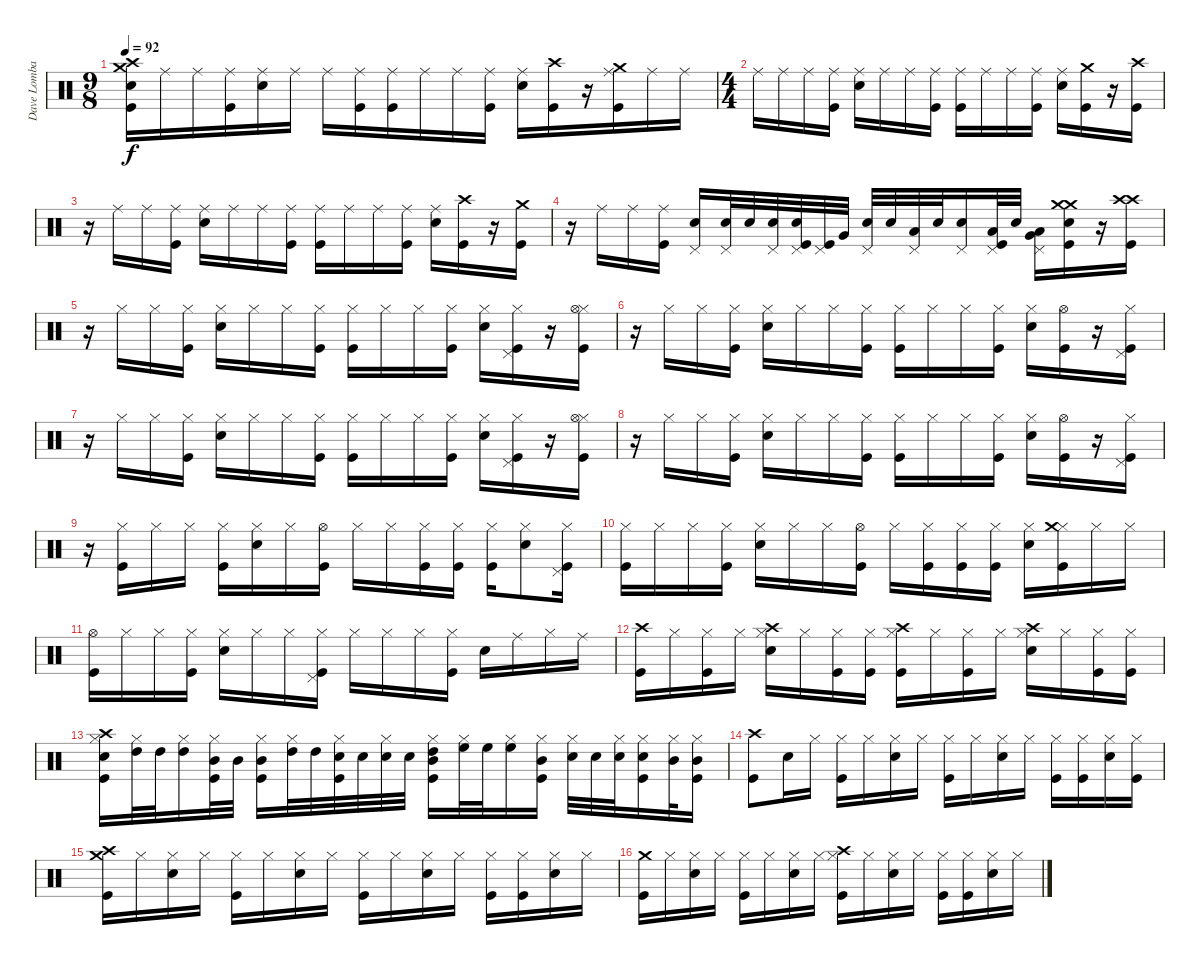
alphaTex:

\track ("Dave Lombardo" "Dave Lomba") {instrument percussion}
\staff {score}
\articulation defaults
\ts (9 8)
\tempo 92
\clef neutral
\ks c
("Crash high (hit)" "Kick (hit)" "Snare (hit) 2" "Crash medium (hit)").16{dy f} "Ride (middle)".16 "Ride (middle)".16 ("Ride (middle)" "Kick (hit)").16 ("Ride (middle)" "Snare (hit) 2").16 "Ride (middle)".16 "Ride (middle)".16 ("Ride (middle)" "Kick (hit)").16 ("Ride (middle)" "Kick (hit)").16 "Ride (middle)".16 "Ride (middle)".16 ("Ride (middle)" "Kick (hit)").16 ("Ride (middle)" "Snare (hit) 2").16 ("Crash high (hit)" "Kick (hit)").16 r.16 ("Ride (middle)" "Kick (hit)" "Crash medium (hit)").16 "Ride (middle)".16 "Ride (middle)".16 |
\ts (4 4)
"Ride (middle)".16 "Ride (middle)".16 "Ride (middle)".16 ("Ride (middle)" "Kick (hit)").16 ("Ride (middle)" "Snare (hit) 2").16 "Ride (middle)".16 "Ride (middle)".16 ("Ride (middle)" "Kick (hit)").16 ("Ride (middle)" "Kick (hit)").16 "Ride (middle)".16 "Ride (middle)".16 ("Ride (middle)" "Kick (hit)").16 ("Ride (middle)" "Snare (hit) 2").16 ("Kick (hit)" "Crash medium (hit)").16 r.16 ("Crash high (hit)" "Kick (hit)").16 |
r.16 "Ride (middle)".16 "Ride (middle)".16 ("Ride (middle)" "Kick (hit)").16 ("Ride (middle)" "Snare (hit) 2").16 "Ride (middle)".16 "Ride (middle)".16 ("Ride (middle)" "Kick (hit)").16 ("Ride (middle)" "Kick (hit)").16 "Ride (middle)".16 "Ride (middle)".16 ("Ride (middle)" "Kick (hit)").16 ("Ride (middle)" "Snare (hit) 2").16 ("Crash high (hit)" "Kick (hit)").16 r.16 ("Kick (hit)" "Crash medium (hit)").16 |
r.16 "Ride (middle)".16 "Ride (middle)".16 ("Ride (middle)" "Kick (hit)").16 ("Pedal Hi-Hat (hit)" "Snare (hit) 2").16 ("Pedal Hi-Hat (hit)" "Snare (hit) 2").32 "Snare (hit) 2".32 ("Pedal Hi-Hat (hit)" "Snare (hit) 2").32 ("Pedal Hi-Hat (hit)" "Kick (hit)" "Snare (hit) 2").32 ("Pedal Hi-Hat (hit)" "Kick (hit)").32 "Very Low Tom (hit)".32 ("Pedal Hi-Hat (hit)" "Snare (hit) 2").32 "Snare (hit) 2".32 ("Pedal Hi-Hat (hit)" "Low Tom (hit)").32 "Snare (hit) 2".32 ("Pedal Hi-Hat (hit)" "Snare (hit) 2").16 ("Pedal Hi-Hat (hit)" "Kick (hit)" "Low Tom (hit)").32 "Snare (hit) 2".32 ("Pedal Hi-Hat (hit)" "Very Low Tom (hit)" "Low Tom (hit)").16 ("Crash medium (hit)" "Kick (hit)" "Snare (hit) 2" "Crash medium (hit)").16 r.16 ("Crash high (hit)" "Kick (hit)" "Crash high (hit)").16 |
r.16 "Hi-Hat (closed)".16 "Hi-Hat (closed)".16 ("Hi-Hat (closed)" "Kick (hit)").16 ("Hi-Hat (closed)" "Snare (hit) 2").16 "Hi-Hat (closed)".16 "Hi-Hat (closed)".16 ("Hi-Hat (closed)" "Kick (hit)").16 ("Hi-Hat (closed)" "Kick (hit)").16 "Hi-Hat (closed)".16 "Hi-Hat (closed)".16 ("Hi-Hat (closed)" "Kick (hit)").16 ("Hi-Hat (closed)" "Snare (hit) 2").16 ("Kick (hit)" "Hi-Hat (closed)" "Pedal Hi-Hat (hit)").16 r.16 ("Hi-Hat (closed)" "Hi-Hat (open)" "Kick (hit)").16 |
r.16 "Hi-Hat (closed)".16 "Hi-Hat (closed)".16 ("Hi-Hat (closed)" "Kick (hit)").16 ("Hi-Hat (closed)" "Snare (hit) 2").16 "Hi-Hat (closed)".16 "Hi-Hat (closed)".16 ("Hi-Hat (closed)" "Kick (hit)").16 ("Hi-Hat (closed)" "Kick (hit)").16 "Hi-Hat (closed)".16 "Hi-Hat (closed)".16 ("Hi-Hat (closed)" "Kick (hit)").16 ("Hi-Hat (closed)" "Snare (hit) 2").16 ("Hi-Hat (open)" "Kick (hit)").16 r.16 ("Kick (hit)" "Hi-Hat (closed)" "Pedal Hi-Hat (hit)").16 |
r.16 "Hi-Hat (closed)".16 "Hi-Hat (closed)".16 ("Hi-Hat (closed)" "Kick (hit)").16 ("Hi-Hat (closed)" "Snare (hit) 2").16 "Hi-Hat (closed)".16 "Hi-Hat (closed)".16 ("Hi-Hat (closed)" "Kick (hit)").16 ("Hi-Hat (closed)" "Kick (hit)").16 "Hi-Hat (closed)".16 "Hi-Hat (closed)".16 ("Hi-Hat (closed)" "Kick (hit)").16 ("Hi-Hat (closed)" "Snare (hit) 2").16 ("Kick (hit)" "Hi-Hat (closed)" "Pedal Hi-Hat (hit)").16 r.16 ("Hi-Hat (closed)" "Hi-Hat (open)" "Kick (hit)").16 |
r.16 "Hi-Hat (closed)".16 "Hi-Hat (closed)".16 ("Hi-Hat (closed)" "Kick (hit)").16 ("Hi-Hat (closed)" "Snare (hit) 2").16 "Hi-Hat (closed)".16 "Hi-Hat (closed)".16 ("Hi-Hat (closed)" "Kick (hit)").16 ("Hi-Hat (closed)" "Kick (hit)").16 "Hi-Hat (closed)".16 "Hi-Hat (closed)".16 ("Hi-Hat (closed)" "Kick (hit)").16 ("Hi-Hat (closed)" "Snare (hit) 2").16 ("Hi-Hat (open)" "Kick (hit)").16 r.16 ("Kick (hit)" "Hi-Hat (closed)" "Pedal Hi-Hat (hit)").16 |
r.16 ("Hi-Hat (closed)" "Kick (hit)").16 "Hi-Hat (closed)".16 "Hi-Hat (closed)".16 ("Hi-Hat (closed)" "Kick (hit)").16 ("Hi-Hat (closed)" "Snare (hit) 2").16 "Hi-Hat (closed)".16 ("Hi-Hat (open)" "Kick (hit)").16 "Hi-Hat (closed)".16 "Hi-Hat (closed)".16 ("Hi-Hat (closed)" "Kick (hit)").16 ("Hi-Hat (closed)" "Kick (hit)").16 ("Hi-Hat (closed)" "Kick (hit)").16 ("Hi-Hat (closed)" "Snare (hit) 2").8 ("Hi-Hat (closed)" "Kick (hit)" "Pedal Hi-Hat (hit)").16 |
("Hi-Hat (closed)" "Kick (hit)").16 "Hi-Hat (closed)".16 "Hi-Hat (closed)".16 ("Hi-Hat (closed)" "Kick (hit)").16 ("Hi-Hat (closed)" "Snare (hit) 2").16 "Hi-Hat (closed)".16 "Hi-Hat (closed)".16 ("Hi-Hat (open)" "Kick (hit)").16 "Hi-Hat (closed)".16 ("Hi-Hat (closed)" "Kick (hit)").16 ("Hi-Hat (closed)" "Kick (hit)").16 ("Hi-Hat (closed)" "Kick (hit)").16 ("Hi-Hat (closed)" "Snare (hit) 2").16 ("Hi-Hat (closed)" "Kick (hit)" "Crash medium (hit)").16 "Hi-Hat (closed)".16 "Hi-Hat (closed)".16 |
("Hi-Hat (open)" "Kick (hit)").16 "Hi-Hat (closed)".16 "Hi-Hat (closed)".16 ("Hi-Hat (closed)" "Kick (hit)").16 ("Hi-Hat (closed)" "Snare (hit) 2").16 "Hi-Hat (closed)".16 "Hi-Hat (closed)".16 ("Hi-Hat (closed)" "Kick (hit)" "Pedal Hi-Hat (hit)").16 "Hi-Hat (closed)".16 "Hi-Hat (closed)".16 "Hi-Hat (closed)".16 ("Hi-Hat (closed)" "Kick (hit)").16 "Snare (hit) 2".16 "Ride (middle)".16 "Hi-Hat (closed)".16 "Ride (middle)".16 |
("Crash high (hit)" "Kick (hit)").16 "Hi-Hat (closed)".16 ("Hi-Hat (closed)" "Kick (hit)").16 "Hi-Hat (closed)".16 ("Crash high (hit)" "Hi-Hat (closed)" "Snare (hit) 2").16 "Hi-Hat (closed)".16 ("Hi-Hat (closed)" "Kick (hit)").16 ("Hi-Hat (closed)" "Kick (hit)").16 ("Crash high (hit)" "Hi-Hat (closed)" "Kick (hit)").16 "Hi-Hat (closed)".16 ("Hi-Hat (closed)" "Kick (hit)").16 "Hi-Hat (closed)".16 ("Crash high (hit)" "Hi-Hat (closed)" "Snare (hit) 2").16 "Hi-Hat (closed)".16 ("Hi-Hat (closed)" "Kick (hit)").16 ("Hi-Hat (closed)" "Kick (hit)").16 |
("Crash high (hit)" "Hi-Hat (closed)" "Kick (hit)" "Snare (hit) 2").16 ("Hi-Hat (closed)" "High Tom (hit)").32 "High Tom (hit)".32 ("Hi-Hat (closed)" "High Tom (hit)").16 ("Hi-Hat (closed)" "Kick (hit)" "Mid Tom (hit)").32 "Mid Tom (hit)".32 ("Hi-Hat (closed)" "Kick (hit)" "Mid Tom (hit)").16 ("Hi-Hat (closed)" "High Tom (hit)").32 "High Tom (hit)".32 ("Hi-Hat (closed)" "Kick (hit)" "Snare (hit) 2").32 "Snare (hit) 2".32 ("Hi-Hat (closed)" "Snare (hit) 2").32 "Snare (hit) 2".32 ("Hi-Hat (closed)" "Kick (hit)" "Mid Tom (hit)" "High Tom (hit)").16 ("Hi-Hat (closed)" "High Floor Tom (hit)").32 "High Floor Tom (hit)".32 ("Hi-Hat (closed)" "High Floor Tom (hit)").16 ("Hi-Hat (closed)" "Kick (hit)" "Mid Tom (hit)").16 ("Hi-Hat (closed)" "Snare (hit) 2").32 "Snare (hit) 2".32 ("Hi-Hat (closed)" "Snare (hit) 2").32 ("Hi-Hat (closed)" "Kick (hit)" "Snare (hit) 2").16 ("Hi-Hat (closed)" "Mid Tom (hit)").32 ("Hi-Hat (closed)" "Kick (hit)" "Mid Tom (hit)").16 |
("Crash high (hit)" "Kick (hit)").8 "Snare (hit) 2".16 "Hi-Hat (closed)".16 ("Hi-Hat (closed)" "Kick (hit)").16 "Hi-Hat (closed)".16 ("Hi-Hat (closed)" "Snare (hit) 2").16 "Hi-Hat (closed)".16 ("Hi-Hat (closed)" "Kick (hit)").16 "Hi-Hat (closed)".16 ("Hi-Hat (closed)" "Snare (hit) 2").16 "Hi-Hat (closed)".16 ("Hi-Hat (closed)" "Kick (hit)").16 ("Hi-Hat (closed)" "Kick (hit)").16 ("Hi-Hat (closed)" "Snare (hit) 2").16 ("Hi-Hat (closed)" "Kick (hit)").16 |
("Crash high (hit)" "Kick (hit)" "Crash medium (hit)").16 "Hi-Hat (closed)".16 ("Hi-Hat (closed)" "Snare (hit) 2").16 "Hi-Hat (closed)".16 ("Hi-Hat (closed)" "Kick (hit)").16 "Hi-Hat (closed)".16 ("Hi-Hat (closed)" "Snare (hit) 2").16 "Hi-Hat (closed)".16 ("Hi-Hat (closed)" "Kick (hit)").16 "Hi-Hat (closed)".16 ("Hi-Hat (closed)" "Snare (hit) 2").16 "Hi-Hat (closed)".16 ("Hi-Hat (closed)" "Kick (hit)").16 ("Hi-Hat (closed)" "Kick (hit)").16 ("Hi-Hat (closed)" "Snare (hit) 2").16 "Hi-Hat (closed)".16 |
("Kick (hit)" "Crash medium (hit)").16 "Hi-Hat (closed)".16 ("Hi-Hat (closed)" "Snare (hit) 2").16 "Hi-Hat (closed)".16 ("Hi-Hat (closed)" "Kick (hit)").16 "Hi-Hat (closed)".16 ("Hi-Hat (closed)" "Snare (hit) 2").16 "Hi-Hat (closed)".16 ("Crash high (hit)" "Hi-Hat (closed)" "Kick (hit)").16 "Hi-Hat (closed)".16 ("Hi-Hat (closed)" "Snare (hit) 2").16 "Hi-Hat (closed)".16 ("Hi-Hat (closed)" "Kick (hit)").16 ("Hi-Hat (closed)" "Kick (hit)").16 ("Hi-Hat (closed)" "Snare (hit) 2").16 "Hi-Hat (closed)".16
